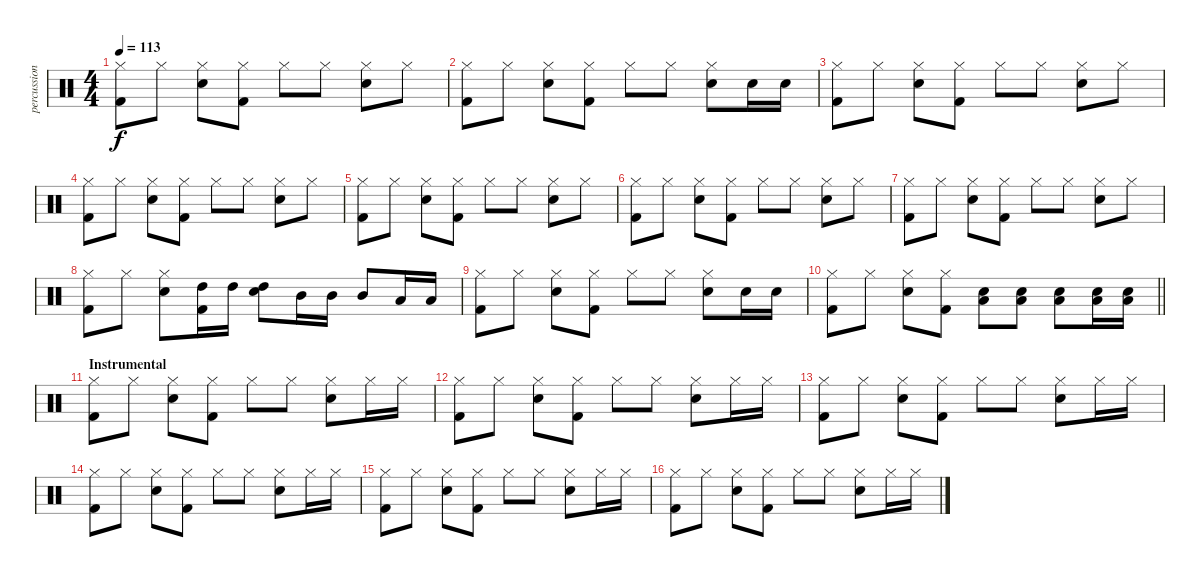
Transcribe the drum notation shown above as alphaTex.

\track ("percussion" "percussion") {instrument percussion}
\staff {score}
\articulation defaults
\ts (4 4)
\tempo 113
\clef neutral
\ks c
("Hi-Hat (closed)" "Kick (hit) 2").8{dy f} "Hi-Hat (closed)".8 ("Snare (hit) 2" "Hi-Hat (closed)").8 ("Hi-Hat (closed)" "Kick (hit) 2").8 "Hi-Hat (closed)".8 "Hi-Hat (closed)".8 ("Snare (hit) 2" "Hi-Hat (closed)").8 "Hi-Hat (closed)".8 |
("Hi-Hat (closed)" "Kick (hit) 2").8 "Hi-Hat (closed)".8 ("Snare (hit) 2" "Hi-Hat (closed)").8 ("Hi-Hat (closed)" "Kick (hit) 2").8 "Hi-Hat (closed)".8 "Hi-Hat (closed)".8 ("Snare (hit) 2" "Hi-Hat (closed)").8 "Snare (hit) 2".16 "Snare (hit) 2".16 |
("Hi-Hat (closed)" "Kick (hit) 2").8 "Hi-Hat (closed)".8 ("Snare (hit) 2" "Hi-Hat (closed)").8 ("Hi-Hat (closed)" "Kick (hit) 2").8 "Hi-Hat (closed)".8 "Hi-Hat (closed)".8 ("Snare (hit) 2" "Hi-Hat (closed)").8 "Hi-Hat (closed)".8 |
("Hi-Hat (closed)" "Kick (hit) 2").8 "Hi-Hat (closed)".8 ("Snare (hit) 2" "Hi-Hat (closed)").8 ("Hi-Hat (closed)" "Kick (hit) 2").8 "Hi-Hat (closed)".8 "Hi-Hat (closed)".8 ("Snare (hit) 2" "Hi-Hat (closed)").8 "Hi-Hat (closed)".8 |
("Hi-Hat (closed)" "Kick (hit) 2").8 "Hi-Hat (closed)".8 ("Snare (hit) 2" "Hi-Hat (closed)").8 ("Hi-Hat (closed)" "Kick (hit) 2").8 "Hi-Hat (closed)".8 "Hi-Hat (closed)".8 ("Snare (hit) 2" "Hi-Hat (closed)").8 "Hi-Hat (closed)".8 |
("Hi-Hat (closed)" "Kick (hit) 2").8 "Hi-Hat (closed)".8 ("Snare (hit) 2" "Hi-Hat (closed)").8 ("Hi-Hat (closed)" "Kick (hit) 2").8 "Hi-Hat (closed)".8 "Hi-Hat (closed)".8 ("Snare (hit) 2" "Hi-Hat (closed)").8 "Hi-Hat (closed)".8 |
("Hi-Hat (closed)" "Kick (hit) 2").8 "Hi-Hat (closed)".8 ("Snare (hit) 2" "Hi-Hat (closed)").8 ("Hi-Hat (closed)" "Kick (hit) 2").8 "Hi-Hat (closed)".8 "Hi-Hat (closed)".8 ("Snare (hit) 2" "Hi-Hat (closed)").8 "Hi-Hat (closed)".8 |
("Hi-Hat (closed)" "Kick (hit) 2").8 "Hi-Hat (closed)".8 ("Snare (hit) 2" "Hi-Hat (closed)").8 ("High Tom (hit)" "Kick (hit) 2").16 "High Tom (hit)".16 ("High Tom (hit)" "Snare (hit) 2").8 "Mid Tom (hit)".16 "Mid Tom (hit)".16 "Mid Tom (hit)".8 "Low Tom (hit)".16 "Low Tom (hit)".16 |
("Hi-Hat (closed)" "Kick (hit) 2").8 "Hi-Hat (closed)".8 ("Snare (hit) 2" "Hi-Hat (closed)").8 ("Hi-Hat (closed)" "Kick (hit) 2").8 "Hi-Hat (closed)".8 "Hi-Hat (closed)".8 ("Snare (hit) 2" "Hi-Hat (closed)").8 "Snare (hit) 2".16 "Snare (hit) 2".16 |
\barLineRight lightlight
("Hi-Hat (closed)" "Kick (hit) 2").8 "Hi-Hat (closed)".8 ("Snare (hit) 2" "Hi-Hat (closed)").8 ("Hi-Hat (closed)" "Kick (hit) 2").8 ("Low Floor Tom (hit)" "Snare (hit) 2").8 ("Low Floor Tom (hit)" "Snare (hit) 2").8 ("Low Floor Tom (hit)" "Snare (hit) 2").8 ("Low Floor Tom (hit)" "Snare (hit) 2").16 ("Low Floor Tom (hit)" "Snare (hit) 2").16 |
\section ("" "Instrumental")
("Hi-Hat (closed)" "Kick (hit) 2").8 "Hi-Hat (closed)".8 ("Snare (hit) 2" "Hi-Hat (closed)").8 ("Hi-Hat (closed)" "Kick (hit) 2").8 "Hi-Hat (closed)".8 "Hi-Hat (closed)".8 ("Snare (hit) 2" "Hi-Hat (closed)").8 "Hi-Hat (closed)".16 "Hi-Hat (closed)".16 |
("Hi-Hat (closed)" "Kick (hit) 2").8 "Hi-Hat (closed)".8 ("Snare (hit) 2" "Hi-Hat (closed)").8 ("Hi-Hat (closed)" "Kick (hit) 2").8 "Hi-Hat (closed)".8 "Hi-Hat (closed)".8 ("Snare (hit) 2" "Hi-Hat (closed)").8 "Hi-Hat (closed)".16 "Hi-Hat (closed)".16 |
("Hi-Hat (closed)" "Kick (hit) 2").8 "Hi-Hat (closed)".8 ("Snare (hit) 2" "Hi-Hat (closed)").8 ("Hi-Hat (closed)" "Kick (hit) 2").8 "Hi-Hat (closed)".8 "Hi-Hat (closed)".8 ("Snare (hit) 2" "Hi-Hat (closed)").8 "Hi-Hat (closed)".16 "Hi-Hat (closed)".16 |
("Hi-Hat (closed)" "Kick (hit) 2").8 "Hi-Hat (closed)".8 ("Snare (hit) 2" "Hi-Hat (closed)").8 ("Hi-Hat (closed)" "Kick (hit) 2").8 "Hi-Hat (closed)".8 "Hi-Hat (closed)".8 ("Snare (hit) 2" "Hi-Hat (closed)").8 "Hi-Hat (closed)".16 "Hi-Hat (closed)".16 |
("Hi-Hat (closed)" "Kick (hit) 2").8 "Hi-Hat (closed)".8 ("Snare (hit) 2" "Hi-Hat (closed)").8 ("Hi-Hat (closed)" "Kick (hit) 2").8 "Hi-Hat (closed)".8 "Hi-Hat (closed)".8 ("Snare (hit) 2" "Hi-Hat (closed)").8 "Hi-Hat (closed)".16 "Hi-Hat (closed)".16 |
("Hi-Hat (closed)" "Kick (hit) 2").8 "Hi-Hat (closed)".8 ("Snare (hit) 2" "Hi-Hat (closed)").8 ("Hi-Hat (closed)" "Kick (hit) 2").8 "Hi-Hat (closed)".8 "Hi-Hat (closed)".8 ("Snare (hit) 2" "Hi-Hat (closed)").8 "Hi-Hat (closed)".16 "Hi-Hat (closed)".16
